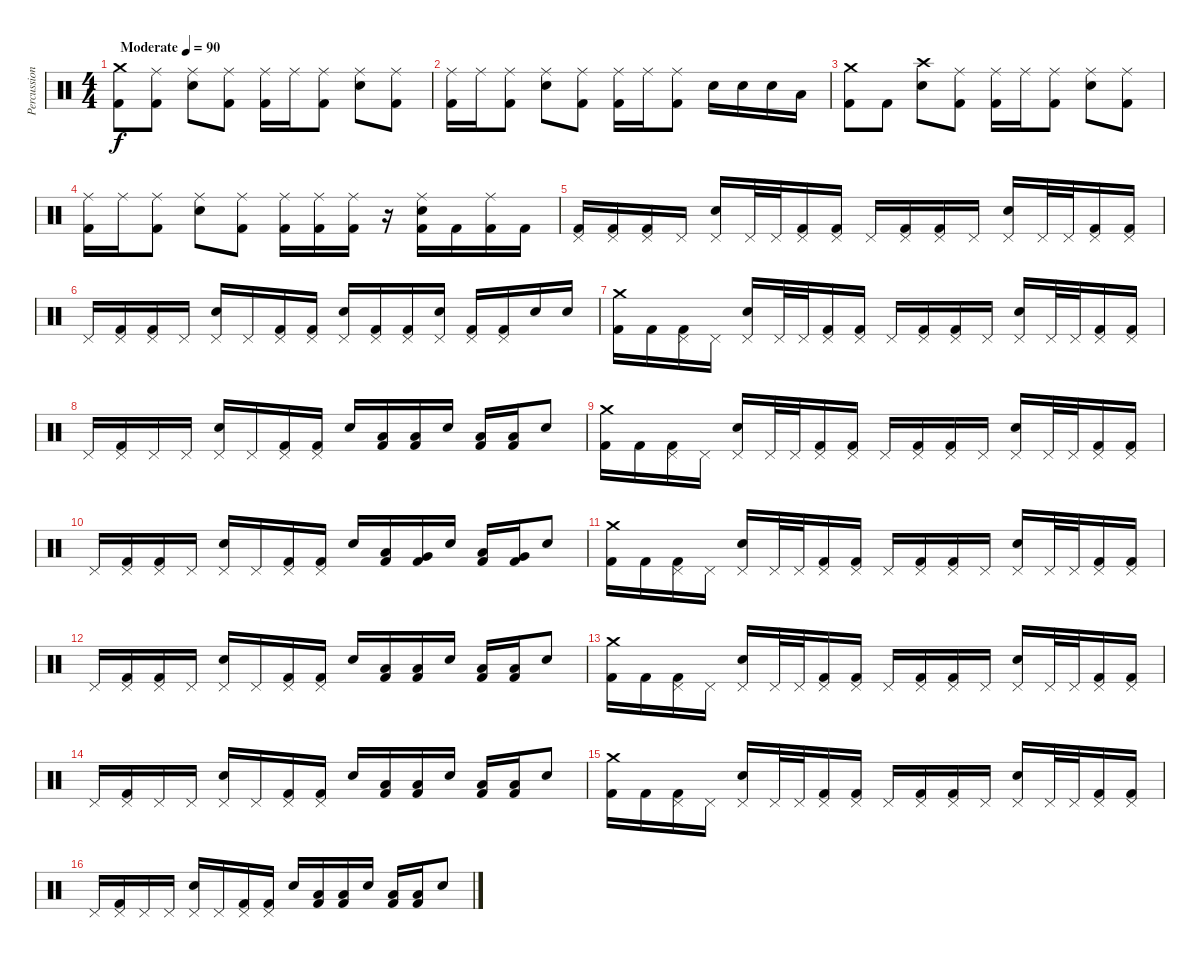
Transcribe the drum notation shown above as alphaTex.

\track ("Percussion" "Percussion") {instrument percussion}
\staff {score}
\articulation defaults
\ts (4 4)
\tempo (90 "Moderate")
\clef neutral
\ks c
("Crash medium (hit)" "Kick (hit) 2").8{dy f} ("Ride (middle)" "Kick (hit) 2").8 ("Ride (middle)" "Electric Snare (hit)").8 ("Ride (middle)" "Kick (hit) 2").8 ("Ride (middle)" "Kick (hit) 2").16 "Ride (middle)".16 ("Ride (middle)" "Kick (hit) 2").8 ("Ride (middle)" "Electric Snare (hit)").8 ("Ride (middle)" "Kick (hit) 2").8 |
("Ride (middle)" "Kick (hit) 2").16 "Ride (middle)".16 ("Ride (middle)" "Kick (hit) 2").8 ("Ride (middle)" "Electric Snare (hit)").8 ("Ride (middle)" "Kick (hit) 2").8 ("Ride (middle)" "Kick (hit) 2").16 "Ride (middle)".16 ("Ride (middle)" "Kick (hit) 2").8 "Electric Snare (hit)".16 "Electric Snare (hit)".16 "Electric Snare (hit)".16 "Low Tom (hit)".16 |
("Crash medium (hit)" "Kick (hit) 2").8 "Kick (hit) 2".8 ("Crash high (hit)" "Electric Snare (hit)").8 ("Ride (middle)" "Kick (hit) 2").8 ("Ride (middle)" "Kick (hit) 2").16 "Ride (middle)".16 ("Ride (middle)" "Kick (hit) 2").8 ("Ride (middle)" "Electric Snare (hit)").8 ("Ride (middle)" "Kick (hit) 2").8 |
("Ride (middle)" "Kick (hit) 2").16 "Ride (middle)".16 ("Ride (middle)" "Kick (hit) 2").8 ("Ride (middle)" "Electric Snare (hit)").8 ("Ride (middle)" "Kick (hit) 2").8 ("Ride (middle)" "Kick (hit) 2").16 ("Ride (middle)" "Kick (hit) 2").16 ("Ride (middle)" "Kick (hit) 2").16 r.16 ("Ride (middle)" "Electric Snare (hit)" "Kick (hit) 2").16 "Kick (hit) 2".16 ("Ride (middle)" "Kick (hit) 2").16 "Kick (hit) 2".16 |
("Pedal Hi-Hat (hit)" "Kick (hit) 2").16 ("Pedal Hi-Hat (hit)" "Kick (hit) 2").16 ("Pedal Hi-Hat (hit)" "Kick (hit) 2").16 "Pedal Hi-Hat (hit)".16 ("Pedal Hi-Hat (hit)" "Electric Snare (hit)").16 "Pedal Hi-Hat (hit)".32 "Pedal Hi-Hat (hit)".32 ("Pedal Hi-Hat (hit)" "Kick (hit) 2").16 ("Pedal Hi-Hat (hit)" "Kick (hit) 2").16 "Pedal Hi-Hat (hit)".16 ("Pedal Hi-Hat (hit)" "Kick (hit) 2").16 ("Pedal Hi-Hat (hit)" "Kick (hit) 2").16 "Pedal Hi-Hat (hit)".16 ("Pedal Hi-Hat (hit)" "Electric Snare (hit)").16 "Pedal Hi-Hat (hit)".32 "Pedal Hi-Hat (hit)".32 ("Pedal Hi-Hat (hit)" "Kick (hit) 2").16 ("Pedal Hi-Hat (hit)" "Kick (hit) 2").16 |
"Pedal Hi-Hat (hit)".16 ("Pedal Hi-Hat (hit)" "Kick (hit) 2").16 ("Pedal Hi-Hat (hit)" "Kick (hit) 2").16 "Pedal Hi-Hat (hit)".16 ("Pedal Hi-Hat (hit)" "Electric Snare (hit)").16 "Pedal Hi-Hat (hit)".16 ("Pedal Hi-Hat (hit)" "Kick (hit) 2").16 ("Pedal Hi-Hat (hit)" "Kick (hit) 2").16 ("Pedal Hi-Hat (hit)" "Electric Snare (hit)").16 ("Pedal Hi-Hat (hit)" "Kick (hit) 2").16 ("Pedal Hi-Hat (hit)" "Kick (hit) 2").16 ("Pedal Hi-Hat (hit)" "Electric Snare (hit)").16 ("Pedal Hi-Hat (hit)" "Kick (hit) 2").16 ("Pedal Hi-Hat (hit)" "Kick (hit) 2").16 "Electric Snare (hit)".16 "Electric Snare (hit)".16 |
("Crash medium (hit)" "Kick (hit) 2").16 "Kick (hit) 2".16 ("Pedal Hi-Hat (hit)" "Kick (hit) 2").16 "Pedal Hi-Hat (hit)".16 ("Pedal Hi-Hat (hit)" "Electric Snare (hit)").16 "Pedal Hi-Hat (hit)".32 "Pedal Hi-Hat (hit)".32 ("Pedal Hi-Hat (hit)" "Kick (hit) 2").16 ("Pedal Hi-Hat (hit)" "Kick (hit) 2").16 "Pedal Hi-Hat (hit)".16 ("Pedal Hi-Hat (hit)" "Kick (hit) 2").16 ("Pedal Hi-Hat (hit)" "Kick (hit) 2").16 "Pedal Hi-Hat (hit)".16 ("Pedal Hi-Hat (hit)" "Electric Snare (hit)").16 "Pedal Hi-Hat (hit)".32 "Pedal Hi-Hat (hit)".32 ("Pedal Hi-Hat (hit)" "Kick (hit) 2").16 ("Pedal Hi-Hat (hit)" "Kick (hit) 2").16 |
"Pedal Hi-Hat (hit)".16 ("Pedal Hi-Hat (hit)" "Kick (hit) 2").16 "Pedal Hi-Hat (hit)".16 "Pedal Hi-Hat (hit)".16 ("Pedal Hi-Hat (hit)" "Electric Snare (hit)").16 "Pedal Hi-Hat (hit)".16 ("Pedal Hi-Hat (hit)" "Kick (hit) 2").16 ("Pedal Hi-Hat (hit)" "Kick (hit) 2").16 "Electric Snare (hit)".16 ("Low Tom (hit)" "Kick (hit) 2").16 ("Low Tom (hit)" "Kick (hit) 2").16 "Electric Snare (hit)".16 ("Low Tom (hit)" "Kick (hit) 2").16 ("Low Tom (hit)" "Kick (hit) 2").16 "Electric Snare (hit)".8 |
("Crash medium (hit)" "Kick (hit) 2").16 "Kick (hit) 2".16 ("Pedal Hi-Hat (hit)" "Kick (hit) 2").16 "Pedal Hi-Hat (hit)".16 ("Pedal Hi-Hat (hit)" "Electric Snare (hit)").16 "Pedal Hi-Hat (hit)".32 "Pedal Hi-Hat (hit)".32 ("Pedal Hi-Hat (hit)" "Kick (hit) 2").16 ("Pedal Hi-Hat (hit)" "Kick (hit) 2").16 "Pedal Hi-Hat (hit)".16 ("Pedal Hi-Hat (hit)" "Kick (hit) 2").16 ("Pedal Hi-Hat (hit)" "Kick (hit) 2").16 "Pedal Hi-Hat (hit)".16 ("Pedal Hi-Hat (hit)" "Electric Snare (hit)").16 "Pedal Hi-Hat (hit)".32 "Pedal Hi-Hat (hit)".32 ("Pedal Hi-Hat (hit)" "Kick (hit) 2").16 ("Pedal Hi-Hat (hit)" "Kick (hit) 2").16 |
"Pedal Hi-Hat (hit)".16 ("Pedal Hi-Hat (hit)" "Kick (hit) 2").16 ("Pedal Hi-Hat (hit)" "Kick (hit) 2").16 "Pedal Hi-Hat (hit)".16 ("Pedal Hi-Hat (hit)" "Electric Snare (hit)").16 "Pedal Hi-Hat (hit)".16 ("Pedal Hi-Hat (hit)" "Kick (hit) 2").16 ("Pedal Hi-Hat (hit)" "Kick (hit) 2").16 "Electric Snare (hit)".16 ("Low Tom (hit)" "Kick (hit) 2").16 ("Very Low Tom (hit)" "Kick (hit) 2").16 "Electric Snare (hit)".16 ("Low Tom (hit)" "Kick (hit) 2").16 ("Very Low Tom (hit)" "Kick (hit) 2").16 "Electric Snare (hit)".8 |
("Crash medium (hit)" "Kick (hit) 2").16 "Kick (hit) 2".16 ("Pedal Hi-Hat (hit)" "Kick (hit) 2").16 "Pedal Hi-Hat (hit)".16 ("Pedal Hi-Hat (hit)" "Electric Snare (hit)").16 "Pedal Hi-Hat (hit)".32 "Pedal Hi-Hat (hit)".32 ("Pedal Hi-Hat (hit)" "Kick (hit) 2").16 ("Pedal Hi-Hat (hit)" "Kick (hit) 2").16 "Pedal Hi-Hat (hit)".16 ("Pedal Hi-Hat (hit)" "Kick (hit) 2").16 ("Pedal Hi-Hat (hit)" "Kick (hit) 2").16 "Pedal Hi-Hat (hit)".16 ("Pedal Hi-Hat (hit)" "Electric Snare (hit)").16 "Pedal Hi-Hat (hit)".32 "Pedal Hi-Hat (hit)".32 ("Pedal Hi-Hat (hit)" "Kick (hit) 2").16 ("Pedal Hi-Hat (hit)" "Kick (hit) 2").16 |
"Pedal Hi-Hat (hit)".16 ("Pedal Hi-Hat (hit)" "Kick (hit) 2").16 ("Pedal Hi-Hat (hit)" "Kick (hit) 2").16 "Pedal Hi-Hat (hit)".16 ("Pedal Hi-Hat (hit)" "Electric Snare (hit)").16 "Pedal Hi-Hat (hit)".16 ("Pedal Hi-Hat (hit)" "Kick (hit) 2").16 ("Pedal Hi-Hat (hit)" "Kick (hit) 2").16 "Electric Snare (hit)".16 ("Low Tom (hit)" "Kick (hit) 2").16 ("Low Tom (hit)" "Kick (hit) 2").16 "Electric Snare (hit)".16 ("Low Tom (hit)" "Kick (hit) 2").16 ("Low Tom (hit)" "Kick (hit) 2").16 "Electric Snare (hit)".8 |
("Crash medium (hit)" "Kick (hit) 2").16 "Kick (hit) 2".16 ("Pedal Hi-Hat (hit)" "Kick (hit) 2").16 "Pedal Hi-Hat (hit)".16 ("Pedal Hi-Hat (hit)" "Electric Snare (hit)").16 "Pedal Hi-Hat (hit)".32 "Pedal Hi-Hat (hit)".32 ("Pedal Hi-Hat (hit)" "Kick (hit) 2").16 ("Pedal Hi-Hat (hit)" "Kick (hit) 2").16 "Pedal Hi-Hat (hit)".16 ("Pedal Hi-Hat (hit)" "Kick (hit) 2").16 ("Pedal Hi-Hat (hit)" "Kick (hit) 2").16 "Pedal Hi-Hat (hit)".16 ("Pedal Hi-Hat (hit)" "Electric Snare (hit)").16 "Pedal Hi-Hat (hit)".32 "Pedal Hi-Hat (hit)".32 ("Pedal Hi-Hat (hit)" "Kick (hit) 2").16 ("Pedal Hi-Hat (hit)" "Kick (hit) 2").16 |
"Pedal Hi-Hat (hit)".16 ("Pedal Hi-Hat (hit)" "Kick (hit) 2").16 "Pedal Hi-Hat (hit)".16 "Pedal Hi-Hat (hit)".16 ("Pedal Hi-Hat (hit)" "Electric Snare (hit)").16 "Pedal Hi-Hat (hit)".16 ("Pedal Hi-Hat (hit)" "Kick (hit) 2").16 ("Pedal Hi-Hat (hit)" "Kick (hit) 2").16 "Electric Snare (hit)".16 ("Low Tom (hit)" "Kick (hit) 2").16 ("Low Tom (hit)" "Kick (hit) 2").16 "Electric Snare (hit)".16 ("Low Tom (hit)" "Kick (hit) 2").16 ("Low Tom (hit)" "Kick (hit) 2").16 "Electric Snare (hit)".8 |
("Crash medium (hit)" "Kick (hit) 2").16 "Kick (hit) 2".16 ("Pedal Hi-Hat (hit)" "Kick (hit) 2").16 "Pedal Hi-Hat (hit)".16 ("Pedal Hi-Hat (hit)" "Electric Snare (hit)").16 "Pedal Hi-Hat (hit)".32 "Pedal Hi-Hat (hit)".32 ("Pedal Hi-Hat (hit)" "Kick (hit) 2").16 ("Pedal Hi-Hat (hit)" "Kick (hit) 2").16 "Pedal Hi-Hat (hit)".16 ("Pedal Hi-Hat (hit)" "Kick (hit) 2").16 ("Pedal Hi-Hat (hit)" "Kick (hit) 2").16 "Pedal Hi-Hat (hit)".16 ("Pedal Hi-Hat (hit)" "Electric Snare (hit)").16 "Pedal Hi-Hat (hit)".32 "Pedal Hi-Hat (hit)".32 ("Pedal Hi-Hat (hit)" "Kick (hit) 2").16 ("Pedal Hi-Hat (hit)" "Kick (hit) 2").16 |
"Pedal Hi-Hat (hit)".16 ("Pedal Hi-Hat (hit)" "Kick (hit) 2").16 "Pedal Hi-Hat (hit)".16 "Pedal Hi-Hat (hit)".16 ("Pedal Hi-Hat (hit)" "Electric Snare (hit)").16 "Pedal Hi-Hat (hit)".16 ("Pedal Hi-Hat (hit)" "Kick (hit) 2").16 ("Pedal Hi-Hat (hit)" "Kick (hit) 2").16 "Electric Snare (hit)".16 ("Low Tom (hit)" "Kick (hit) 2").16 ("Low Tom (hit)" "Kick (hit) 2").16 "Electric Snare (hit)".16 ("Low Tom (hit)" "Kick (hit) 2").16 ("Low Tom (hit)" "Kick (hit) 2").16 "Electric Snare (hit)".8
